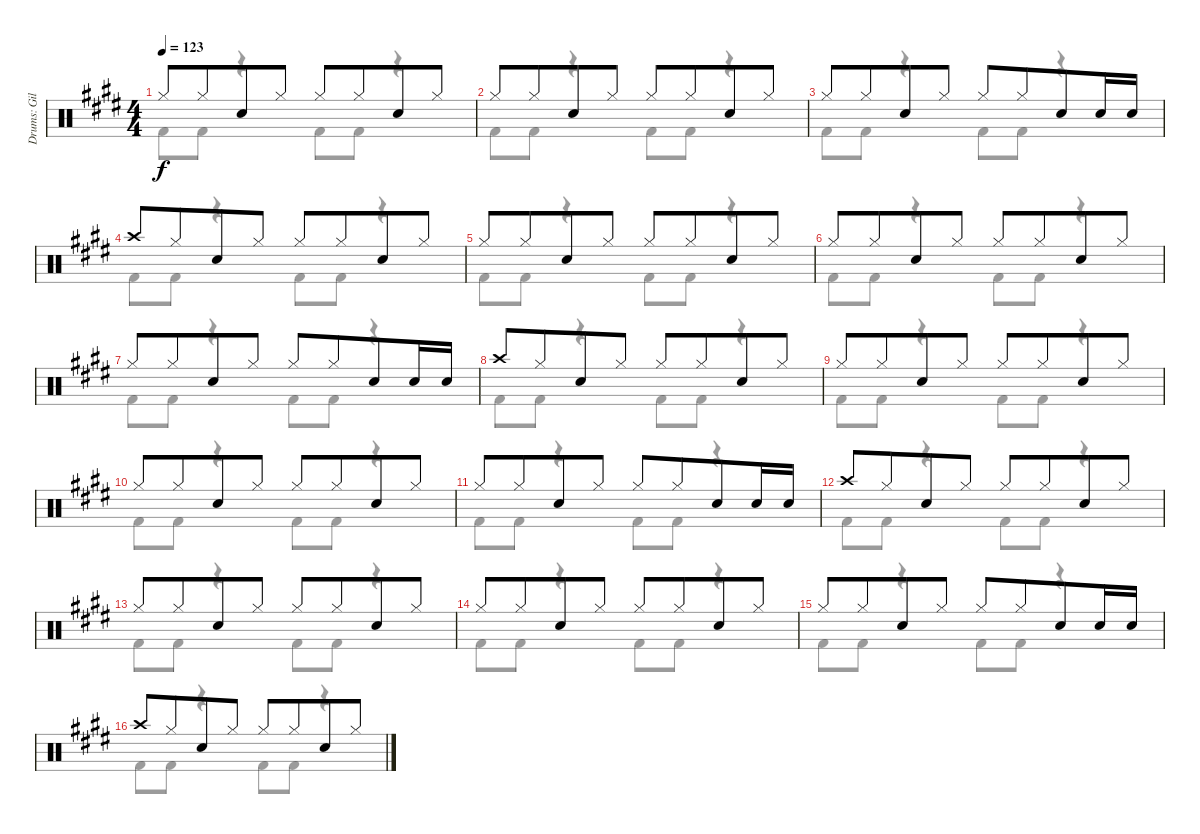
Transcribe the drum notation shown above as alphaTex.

\track ("Drums: Gil" "Drums: Gil") {instrument percussion}
\staff {score}
\articulation defaults
\voice
\ts (4 4)
\tempo 123
\clef neutral
\ks e "Hi-Hat (closed)".8{dy f} "Hi-Hat (closed)".8{beam merge} "Snare (hit) 2".8 "Hi-Hat (closed)".8 "Hi-Hat (closed)".8 "Hi-Hat (closed)".8{beam merge} "Snare (hit) 2".8 "Hi-Hat (closed)".8
|
"Hi-Hat (closed)".8 "Hi-Hat (closed)".8{beam merge} "Snare (hit) 2".8 "Hi-Hat (closed)".8 "Hi-Hat (closed)".8 "Hi-Hat (closed)".8{beam merge} "Snare (hit) 2".8 "Hi-Hat (closed)".8 |
"Hi-Hat (closed)".8 "Hi-Hat (closed)".8{beam merge} "Snare (hit) 2".8 "Hi-Hat (closed)".8 "Hi-Hat (closed)".8 "Hi-Hat (closed)".8{beam merge} "Snare (hit) 2".8 "Snare (hit) 2".16 "Snare (hit) 2".16 |
"Crash high (hit)".8 "Hi-Hat (closed)".8{beam merge} "Snare (hit) 2".8 "Hi-Hat (closed)".8 "Hi-Hat (closed)".8 "Hi-Hat (closed)".8{beam merge} "Snare (hit) 2".8 "Hi-Hat (closed)".8 |
"Hi-Hat (closed)".8 "Hi-Hat (closed)".8{beam merge} "Snare (hit) 2".8 "Hi-Hat (closed)".8 "Hi-Hat (closed)".8 "Hi-Hat (closed)".8{beam merge} "Snare (hit) 2".8 "Hi-Hat (closed)".8 |
"Hi-Hat (closed)".8 "Hi-Hat (closed)".8{beam merge} "Snare (hit) 2".8 "Hi-Hat (closed)".8 "Hi-Hat (closed)".8 "Hi-Hat (closed)".8{beam merge} "Snare (hit) 2".8 "Hi-Hat (closed)".8 |
"Hi-Hat (closed)".8 "Hi-Hat (closed)".8{beam merge} "Snare (hit) 2".8 "Hi-Hat (closed)".8 "Hi-Hat (closed)".8 "Hi-Hat (closed)".8{beam merge} "Snare (hit) 2".8 "Snare (hit) 2".16 "Snare (hit) 2".16 |
"Crash high (hit)".8 "Hi-Hat (closed)".8{beam merge} "Snare (hit) 2".8 "Hi-Hat (closed)".8 "Hi-Hat (closed)".8 "Hi-Hat (closed)".8{beam merge} "Snare (hit) 2".8 "Hi-Hat (closed)".8 |
"Hi-Hat (closed)".8 "Hi-Hat (closed)".8{beam merge} "Snare (hit) 2".8 "Hi-Hat (closed)".8 "Hi-Hat (closed)".8 "Hi-Hat (closed)".8{beam merge} "Snare (hit) 2".8 "Hi-Hat (closed)".8 |
"Hi-Hat (closed)".8 "Hi-Hat (closed)".8{beam merge} "Snare (hit) 2".8 "Hi-Hat (closed)".8 "Hi-Hat (closed)".8 "Hi-Hat (closed)".8{beam merge} "Snare (hit) 2".8 "Hi-Hat (closed)".8 |
"Hi-Hat (closed)".8 "Hi-Hat (closed)".8{beam merge} "Snare (hit) 2".8 "Hi-Hat (closed)".8 "Hi-Hat (closed)".8 "Hi-Hat (closed)".8{beam merge} "Snare (hit) 2".8 "Snare (hit) 2".16 "Snare (hit) 2".16 |
"Crash high (hit)".8 "Hi-Hat (closed)".8{beam merge} "Snare (hit) 2".8 "Hi-Hat (closed)".8 "Hi-Hat (closed)".8 "Hi-Hat (closed)".8{beam merge} "Snare (hit) 2".8 "Hi-Hat (closed)".8 |
"Hi-Hat (closed)".8 "Hi-Hat (closed)".8{beam merge} "Snare (hit) 2".8 "Hi-Hat (closed)".8 "Hi-Hat (closed)".8 "Hi-Hat (closed)".8{beam merge} "Snare (hit) 2".8 "Hi-Hat (closed)".8 |
"Hi-Hat (closed)".8 "Hi-Hat (closed)".8{beam merge} "Snare (hit) 2".8 "Hi-Hat (closed)".8 "Hi-Hat (closed)".8 "Hi-Hat (closed)".8{beam merge} "Snare (hit) 2".8 "Hi-Hat (closed)".8 |
"Hi-Hat (closed)".8 "Hi-Hat (closed)".8{beam merge} "Snare (hit) 2".8 "Hi-Hat (closed)".8 "Hi-Hat (closed)".8 "Hi-Hat (closed)".8{beam merge} "Snare (hit) 2".8 "Snare (hit) 2".16 "Snare (hit) 2".16 |
"Crash high (hit)".8 "Hi-Hat (closed)".8{beam merge} "Snare (hit) 2".8 "Hi-Hat (closed)".8 "Hi-Hat (closed)".8 "Hi-Hat (closed)".8{beam merge} "Snare (hit) 2".8 "Hi-Hat (closed)".8
\voice
\clef neutral
\ottava regular
\simile none
\ks e "Kick (hit) 2".8{dy f} "Kick (hit) 2".8
r.4 "Kick (hit) 2".8 "Kick (hit) 2".8 r.4 |
"Kick (hit) 2".8 "Kick (hit) 2".8 r.4 "Kick (hit) 2".8 "Kick (hit) 2".8 r.4 |
"Kick (hit) 2".8 "Kick (hit) 2".8 r.4 "Kick (hit) 2".8 "Kick (hit) 2".8 r.4 |
"Kick (hit) 2".8 "Kick (hit) 2".8 r.4 "Kick (hit) 2".8 "Kick (hit) 2".8 r.4 |
"Kick (hit) 2".8 "Kick (hit) 2".8 r.4 "Kick (hit) 2".8 "Kick (hit) 2".8 r.4 |
"Kick (hit) 2".8 "Kick (hit) 2".8 r.4 "Kick (hit) 2".8 "Kick (hit) 2".8 r.4 |
"Kick (hit) 2".8 "Kick (hit) 2".8 r.4 "Kick (hit) 2".8 "Kick (hit) 2".8 r.4 |
"Kick (hit) 2".8 "Kick (hit) 2".8 r.4 "Kick (hit) 2".8 "Kick (hit) 2".8 r.4 |
"Kick (hit) 2".8 "Kick (hit) 2".8 r.4 "Kick (hit) 2".8 "Kick (hit) 2".8 r.4 |
"Kick (hit) 2".8 "Kick (hit) 2".8 r.4 "Kick (hit) 2".8 "Kick (hit) 2".8 r.4 |
"Kick (hit) 2".8 "Kick (hit) 2".8 r.4 "Kick (hit) 2".8 "Kick (hit) 2".8 r.4 |
"Kick (hit) 2".8 "Kick (hit) 2".8 r.4 "Kick (hit) 2".8 "Kick (hit) 2".8 r.4 |
"Kick (hit) 2".8 "Kick (hit) 2".8 r.4 "Kick (hit) 2".8 "Kick (hit) 2".8 r.4 |
"Kick (hit) 2".8 "Kick (hit) 2".8 r.4 "Kick (hit) 2".8 "Kick (hit) 2".8 r.4 |
"Kick (hit) 2".8 "Kick (hit) 2".8 r.4 "Kick (hit) 2".8 "Kick (hit) 2".8 r.4 |
"Kick (hit) 2".8 "Kick (hit) 2".8 r.4 "Kick (hit) 2".8 "Kick (hit) 2".8 r.4
